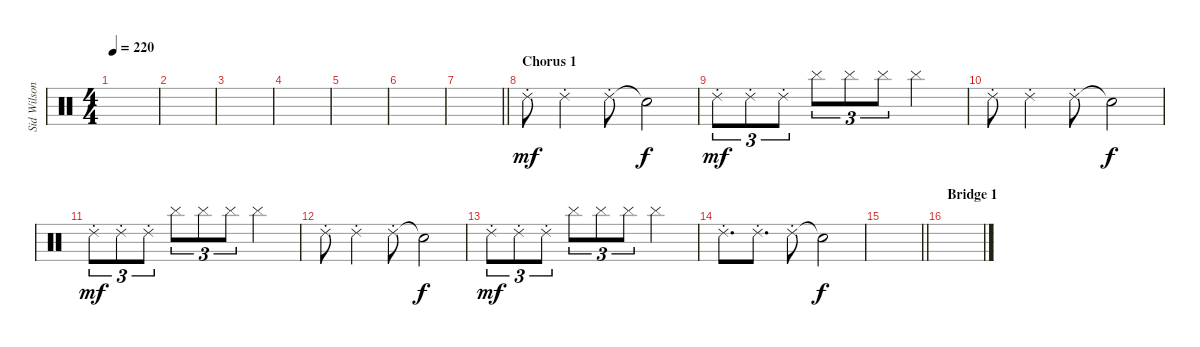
\track ("Sid Wilson" "Sid Wilson") {instrument percussion}
\staff {score}
\articulation defaults
\ts (4 4)
\tempo 220
\clef neutral
\ks c
|
|
|
|
|
|
\barLineRight lightlight
|
\section ("" "Chorus 1")
"Ride (choke) 2".8{dy mf} "Ride (choke) 2".4 "Ride (choke) 2".8 "Snare (hit)"{t}.2{dy f} |
"Ride (choke) 2".8{tu (3 2) dy mf} "Ride (choke) 2".8{tu (3 2)} "Ride (choke) 2".8{tu (3 2)} "Cymbal (hit)".8{tu (3 2)} "Cymbal (hit)".8{tu (3 2)} "Cymbal (hit)".8{tu (3 2)} "Cymbal (hit)".2 |
"Ride (choke) 2".8 "Ride (choke) 2".4 "Ride (choke) 2".8 "Snare (hit)"{t}.2{dy f} |
"Ride (choke) 2".8{tu (3 2) dy mf} "Ride (choke) 2".8{tu (3 2)} "Ride (choke) 2".8{tu (3 2)} "Cymbal (hit)".8{tu (3 2)} "Cymbal (hit)".8{tu (3 2)} "Cymbal (hit)".8{tu (3 2)} "Cymbal (hit)".2 |
"Ride (choke) 2".8 "Ride (choke) 2".4 "Ride (choke) 2".8 "Snare (hit)"{t}.2{dy f} |
"Ride (choke) 2".8{tu (3 2) dy mf} "Ride (choke) 2".8{tu (3 2)} "Ride (choke) 2".8{tu (3 2)} "Cymbal (hit)".8{tu (3 2)} "Cymbal (hit)".8{tu (3 2)} "Cymbal (hit)".8{tu (3 2)} "Cymbal (hit)".2 |
"Ride (choke) 2".8{d} "Ride (choke) 2".8{d} "Ride (choke) 2".8 "Snare (hit)"{t}.2{dy f} |
\barLineRight lightlight
|
\section ("" "Bridge 1")
